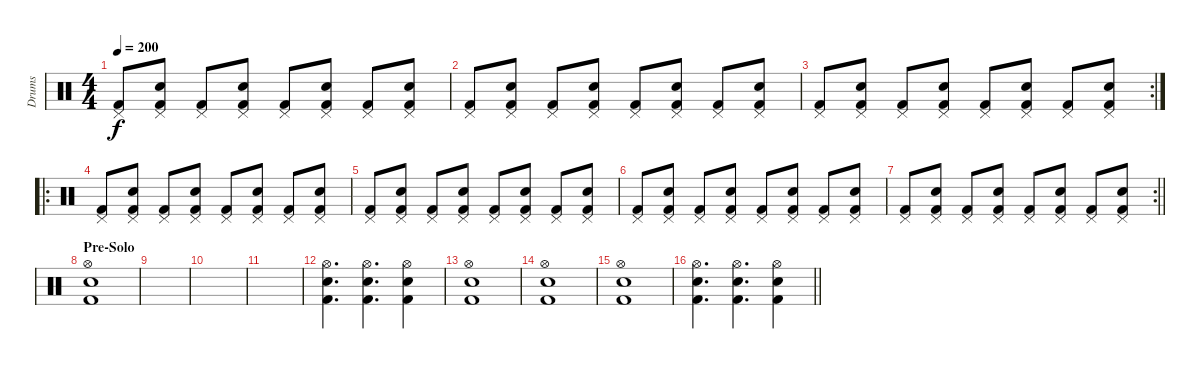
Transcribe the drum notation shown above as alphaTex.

\track ("Drums" "Drums") {instrument percussion}
\staff {score}
\articulation defaults
\ts (4 4)
\tempo 200
\clef neutral
\ks c
("Pedal Hi-Hat (hit)" "Kick (hit) 2").8{dy f} ("Pedal Hi-Hat (hit)" "Snare (hit) 2" "Kick (hit) 2").8 ("Pedal Hi-Hat (hit)" "Kick (hit) 2").8 ("Pedal Hi-Hat (hit)" "Snare (hit) 2" "Kick (hit) 2").8 ("Pedal Hi-Hat (hit)" "Kick (hit) 2").8 ("Pedal Hi-Hat (hit)" "Snare (hit) 2" "Kick (hit) 2").8 ("Pedal Hi-Hat (hit)" "Kick (hit) 2").8 ("Pedal Hi-Hat (hit)" "Snare (hit) 2" "Kick (hit) 2").8 |
("Pedal Hi-Hat (hit)" "Kick (hit) 2").8 ("Pedal Hi-Hat (hit)" "Snare (hit) 2" "Kick (hit) 2").8 ("Pedal Hi-Hat (hit)" "Kick (hit) 2").8 ("Pedal Hi-Hat (hit)" "Snare (hit) 2" "Kick (hit) 2").8 ("Pedal Hi-Hat (hit)" "Kick (hit) 2").8 ("Pedal Hi-Hat (hit)" "Snare (hit) 2" "Kick (hit) 2").8 ("Pedal Hi-Hat (hit)" "Kick (hit) 2").8 ("Pedal Hi-Hat (hit)" "Snare (hit) 2" "Kick (hit) 2").8 |
\rc 2
("Pedal Hi-Hat (hit)" "Kick (hit) 2").8 ("Pedal Hi-Hat (hit)" "Snare (hit) 2" "Kick (hit) 2").8 ("Pedal Hi-Hat (hit)" "Kick (hit) 2").8 ("Pedal Hi-Hat (hit)" "Snare (hit) 2" "Kick (hit) 2").8 ("Pedal Hi-Hat (hit)" "Kick (hit) 2").8 ("Pedal Hi-Hat (hit)" "Snare (hit) 2" "Kick (hit) 2").8 ("Pedal Hi-Hat (hit)" "Kick (hit) 2").8 ("Pedal Hi-Hat (hit)" "Snare (hit) 2" "Kick (hit) 2").8 |
\ro
("Pedal Hi-Hat (hit)" "Kick (hit) 2").8 ("Pedal Hi-Hat (hit)" "Snare (hit) 2" "Kick (hit) 2").8 ("Pedal Hi-Hat (hit)" "Kick (hit) 2").8 ("Pedal Hi-Hat (hit)" "Snare (hit) 2" "Kick (hit) 2").8 ("Pedal Hi-Hat (hit)" "Kick (hit) 2").8 ("Pedal Hi-Hat (hit)" "Snare (hit) 2" "Kick (hit) 2").8 ("Pedal Hi-Hat (hit)" "Kick (hit) 2").8 ("Pedal Hi-Hat (hit)" "Snare (hit) 2" "Kick (hit) 2").8 |
("Pedal Hi-Hat (hit)" "Kick (hit) 2").8 ("Pedal Hi-Hat (hit)" "Snare (hit) 2" "Kick (hit) 2").8 ("Pedal Hi-Hat (hit)" "Kick (hit) 2").8 ("Pedal Hi-Hat (hit)" "Snare (hit) 2" "Kick (hit) 2").8 ("Pedal Hi-Hat (hit)" "Kick (hit) 2").8 ("Pedal Hi-Hat (hit)" "Snare (hit) 2" "Kick (hit) 2").8 ("Pedal Hi-Hat (hit)" "Kick (hit) 2").8 ("Pedal Hi-Hat (hit)" "Snare (hit) 2" "Kick (hit) 2").8 |
("Pedal Hi-Hat (hit)" "Kick (hit) 2").8 ("Pedal Hi-Hat (hit)" "Snare (hit) 2" "Kick (hit) 2").8 ("Pedal Hi-Hat (hit)" "Kick (hit) 2").8 ("Pedal Hi-Hat (hit)" "Snare (hit) 2" "Kick (hit) 2").8 ("Pedal Hi-Hat (hit)" "Kick (hit) 2").8 ("Pedal Hi-Hat (hit)" "Snare (hit) 2" "Kick (hit) 2").8 ("Pedal Hi-Hat (hit)" "Kick (hit) 2").8 ("Pedal Hi-Hat (hit)" "Snare (hit) 2" "Kick (hit) 2").8 |
\rc 2
\barLineRight lightlight
("Pedal Hi-Hat (hit)" "Kick (hit) 2").8 ("Pedal Hi-Hat (hit)" "Snare (hit) 2" "Kick (hit) 2").8 ("Pedal Hi-Hat (hit)" "Kick (hit) 2").8 ("Pedal Hi-Hat (hit)" "Snare (hit) 2" "Kick (hit) 2").8 ("Pedal Hi-Hat (hit)" "Kick (hit) 2").8 ("Pedal Hi-Hat (hit)" "Snare (hit) 2" "Kick (hit) 2").8 ("Pedal Hi-Hat (hit)" "Kick (hit) 2").8 ("Pedal Hi-Hat (hit)" "Snare (hit) 2" "Kick (hit) 2").8 |
\section ("" "Pre-Solo")
("Hi-Hat (open)" "Snare (hit) 2" "Kick (hit) 2").1 |
|
|
|
("Hi-Hat (open)" "Snare (hit) 2" "Kick (hit) 2").4{d} ("Hi-Hat (open)" "Snare (hit) 2" "Kick (hit) 2").4{d} ("Hi-Hat (open)" "Snare (hit) 2" "Kick (hit) 2").4 |
("Hi-Hat (open)" "Snare (hit) 2" "Kick (hit) 2").1 |
("Hi-Hat (open)" "Snare (hit) 2" "Kick (hit) 2").1 |
("Hi-Hat (open)" "Snare (hit) 2" "Kick (hit) 2").1 |
\barLineRight lightlight
("Hi-Hat (open)" "Snare (hit) 2" "Kick (hit) 2").4{d} ("Hi-Hat (open)" "Snare (hit) 2" "Kick (hit) 2").4{d} ("Hi-Hat (open)" "Snare (hit) 2" "Kick (hit) 2").4
